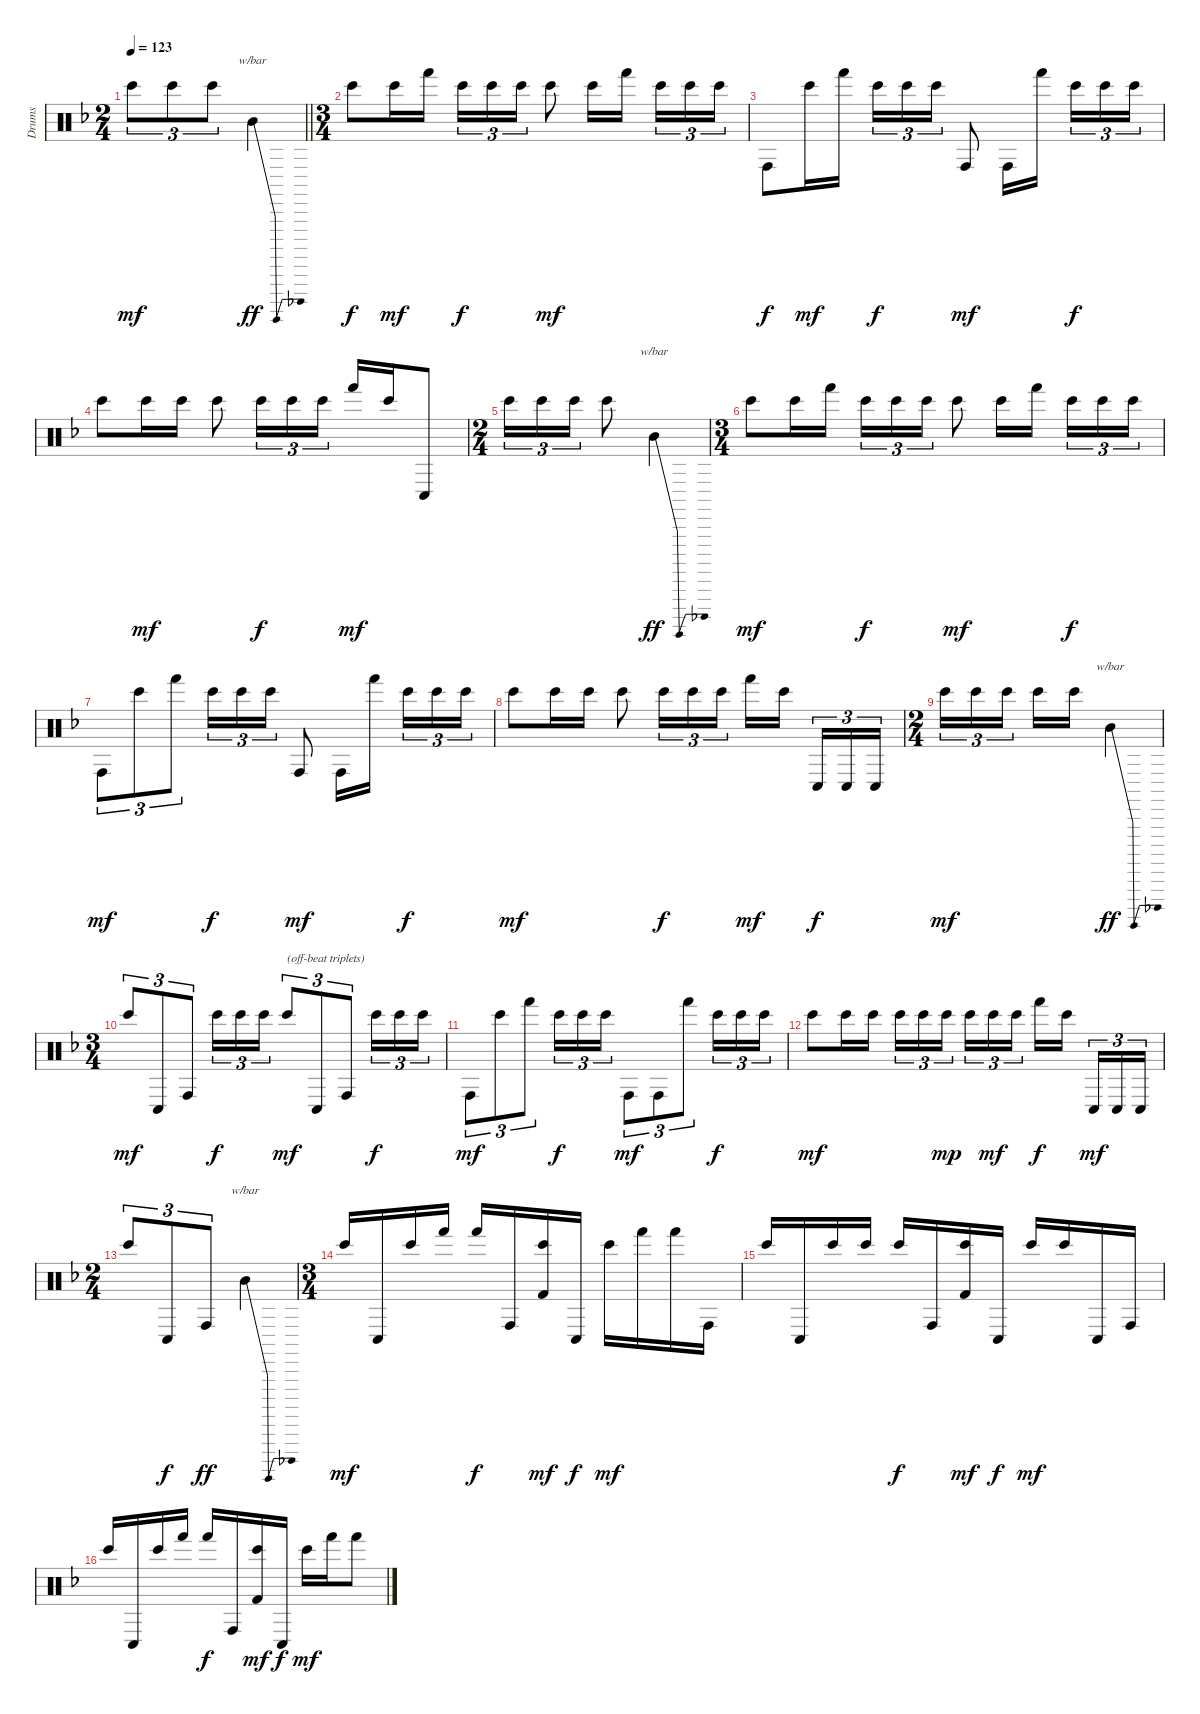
\track ("Drums" "Drums") {instrument percussion}
\staff {score}
\articulation defaults
\ts (2 4)
\tempo 123
\clef neutral
\barLineRight lightlight
\ks dminor "Bongo High (hit)".8{tu (3 2) dy mf} "Bongo High (hit)".8{tu (3 2)} "Bongo High (hit)".8{tu (3 2)} "Mid Tom (hit)".4{tbe (dip default 0 0 30 -12 60 0) dy ff}
|
\ts (3 4)
"Bongo High (hit)".8{dy f} "Bongo High (hit)".16{dy mf} "Hand (hit)".16 "Bongo High (hit)".16{tu (3 2) dy f} "Bongo High (hit)".16{tu (3 2)} "Bongo High (hit)".16{tu (3 2)} "Bongo High (hit)".8{dy mf} "Bongo High (hit)".16 "Hand (hit)".16{beam splitsecondary} "Bongo High (hit)".16{tu (3 2)} "Bongo High (hit)".16{tu (3 2)} "Bongo High (hit)".16{tu (3 2)} |
"Conga high (hit)".8{dy f} "Bongo High (hit)".16{dy mf} "Hand (hit)".16 "Bongo High (hit)".16{tu (3 2) dy f} "Bongo High (hit)".16{tu (3 2)} "Bongo High (hit)".16{tu (3 2)} "Conga high (hit)".8{dy mf} "Conga high (hit)".16 "Hand (hit)".16{beam splitsecondary} "Bongo High (hit)".16{tu (3 2) dy f} "Bongo High (hit)".16{tu (3 2)} "Bongo High (hit)".16{tu (3 2)} |
"Bongo High (hit)".8 "Bongo High (hit)".16{dy mf} "Bongo High (hit)".16 "Bongo High (hit)".8 "Bongo High (hit)".16{tu (3 2) dy f} "Bongo High (hit)".16{tu (3 2)} "Bongo High (hit)".16{tu (3 2)} "Hand (hit)".16{dy mf} "Bongo High (hit)".16 "Conga low (hit)".8 |
\ts (2 4)
"Bongo High (hit)".16{tu (3 2)} "Bongo High (hit)".16{tu (3 2)} "Bongo High (hit)".16{tu (3 2)} "Bongo High (hit)".8 "Mid Tom (hit)".4{tbe (dip default 0 0 30 -12 60 0) dy ff} |
\ts (3 4)
"Bongo High (hit)".8{dy mf} "Bongo High (hit)".16 "Hand (hit)".16 "Bongo High (hit)".16{tu (3 2) dy f} "Bongo High (hit)".16{tu (3 2)} "Bongo High (hit)".16{tu (3 2)} "Bongo High (hit)".8{dy mf} "Bongo High (hit)".16 "Hand (hit)".16{beam splitsecondary} "Bongo High (hit)".16{tu (3 2) dy f} "Bongo High (hit)".16{tu (3 2)} "Bongo High (hit)".16{tu (3 2)} |
"Conga high (hit)".8{tu (3 2) dy mf} "Bongo High (hit)".8{tu (3 2)} "Hand (hit)".8{tu (3 2)} "Bongo High (hit)".16{tu (3 2) dy f} "Bongo High (hit)".16{tu (3 2)} "Bongo High (hit)".16{tu (3 2)} "Conga high (hit)".8{dy mf} "Conga high (hit)".16 "Hand (hit)".16{beam splitsecondary} "Bongo High (hit)".16{tu (3 2) dy f} "Bongo High (hit)".16{tu (3 2)} "Bongo High (hit)".16{tu (3 2)} |
"Bongo High (hit)".8{dy mf} "Bongo High (hit)".16 "Bongo High (hit)".16 "Bongo High (hit)".8 "Bongo High (hit)".16{tu (3 2) dy f} "Bongo High (hit)".16{tu (3 2)} "Bongo High (hit)".16{tu (3 2)} "Hand (hit)".16{dy mf} "Bongo High (hit)".16{beam splitsecondary} "Conga low (hit)".16{tu (3 2) dy f} "Conga low (hit)".16{tu (3 2)} "Conga low (hit)".16{tu (3 2)} |
\ts (2 4)
"Bongo High (hit)".16{tu (3 2) dy mf} "Bongo High (hit)".16{tu (3 2)} "Bongo High (hit)".16{tu (3 2) beam splitsecondary} "Bongo High (hit)".16 "Bongo High (hit)".16 "Mid Tom (hit)".4{tbe (dip default 0 0 30 -12 60 0) dy ff} |
\ts (3 4)
"Bongo High (hit)".8{tu (3 2) dy mf} "Conga low (hit)".8{tu (3 2)} "Conga high (hit)".8{tu (3 2)} "Bongo High (hit)".16{tu (3 2) dy f} "Bongo High (hit)".16{tu (3 2)} "Bongo High (hit)".16{tu (3 2) beam split} "Bongo High (hit)".8{tu (3 2) txt "(off-beat triplets)" dy mf} "Conga low (hit)".8{tu (3 2) beam merge} "Conga high (hit)".8{tu (3 2) beam split} "Bongo High (hit)".16{tu (3 2) dy f} "Bongo High (hit)".16{tu (3 2)} "Bongo High (hit)".16{tu (3 2)} |
"Conga high (hit)".8{tu (3 2) dy mf} "Bongo High (hit)".8{tu (3 2)} "Hand (hit)".8{tu (3 2)} "Bongo High (hit)".16{tu (3 2) dy f} "Bongo High (hit)".16{tu (3 2)} "Bongo High (hit)".16{tu (3 2) beam split} "Conga high (hit)".8{tu (3 2) dy mf} "Conga high (hit)".8{tu (3 2) beam merge} "Hand (hit)".8{tu (3 2) beam split} "Bongo High (hit)".16{tu (3 2) dy f} "Bongo High (hit)".16{tu (3 2)} "Bongo High (hit)".16{tu (3 2)} |
"Bongo High (hit)".8{dy mf} "Bongo High (hit)".16 "Bongo High (hit)".16 "Bongo High (hit)".16{tu (3 2)} "Bongo High (hit)".16{tu (3 2)} "Bongo High (hit)".16{tu (3 2) dy mp beam splitsecondary} "Bongo High (hit)".16{tu (3 2)} "Bongo High (hit)".16{tu (3 2) dy mf} "Bongo High (hit)".16{tu (3 2)} "Hand (hit)".16{dy f} "Bongo High (hit)".16{beam splitsecondary} "Conga low (hit)".16{tu (3 2) dy mf} "Conga low (hit)".16{tu (3 2)} "Conga low (hit)".16{tu (3 2)} |
\ts (2 4)
"Bongo High (hit)".8{tu (3 2)} "Conga low (hit)".8{tu (3 2) dy f} "Conga high (hit)".8{tu (3 2) dy ff} "Mid Tom (hit)".4{tbe (dip default 0 0 30 -12 60 0)} |
\ts (3 4)
"Bongo High (hit)".16{dy mf} "Conga low (hit)".16 "Bongo High (hit)".16 "Hand (hit)".16 "Hand (hit)".16{dy f} "Conga high (hit)".16 ("Bongo High (hit)" "Kick (hit) 2").16{dy mf} "Conga low (hit)".16{dy f} "Bongo High (hit)".16{dy mf} "Hand (hit)".16 "Hand (hit)".16 "Conga high (hit)".16 |
"Bongo High (hit)".16 "Conga low (hit)".16 "Bongo High (hit)".16 "Bongo High (hit)".16 "Bongo High (hit)".16{dy f} "Conga high (hit)".16 ("Bongo High (hit)" "Kick (hit) 2").16{dy mf} "Conga low (hit)".16{dy f} "Bongo High (hit)".16{dy mf} "Bongo High (hit)".16 "Conga low (hit)".16 "Conga high (hit)".16 |
"Bongo High (hit)".16 "Conga low (hit)".16 "Bongo High (hit)".16 "Hand (hit)".16 "Hand (hit)".16{dy f} "Conga high (hit)".16 ("Bongo High (hit)" "Kick (hit) 2").16{dy mf} "Conga low (hit)".16{dy f} "Bongo High (hit)".16{dy mf} "Hand (hit)".16 "Hand (hit)".8
